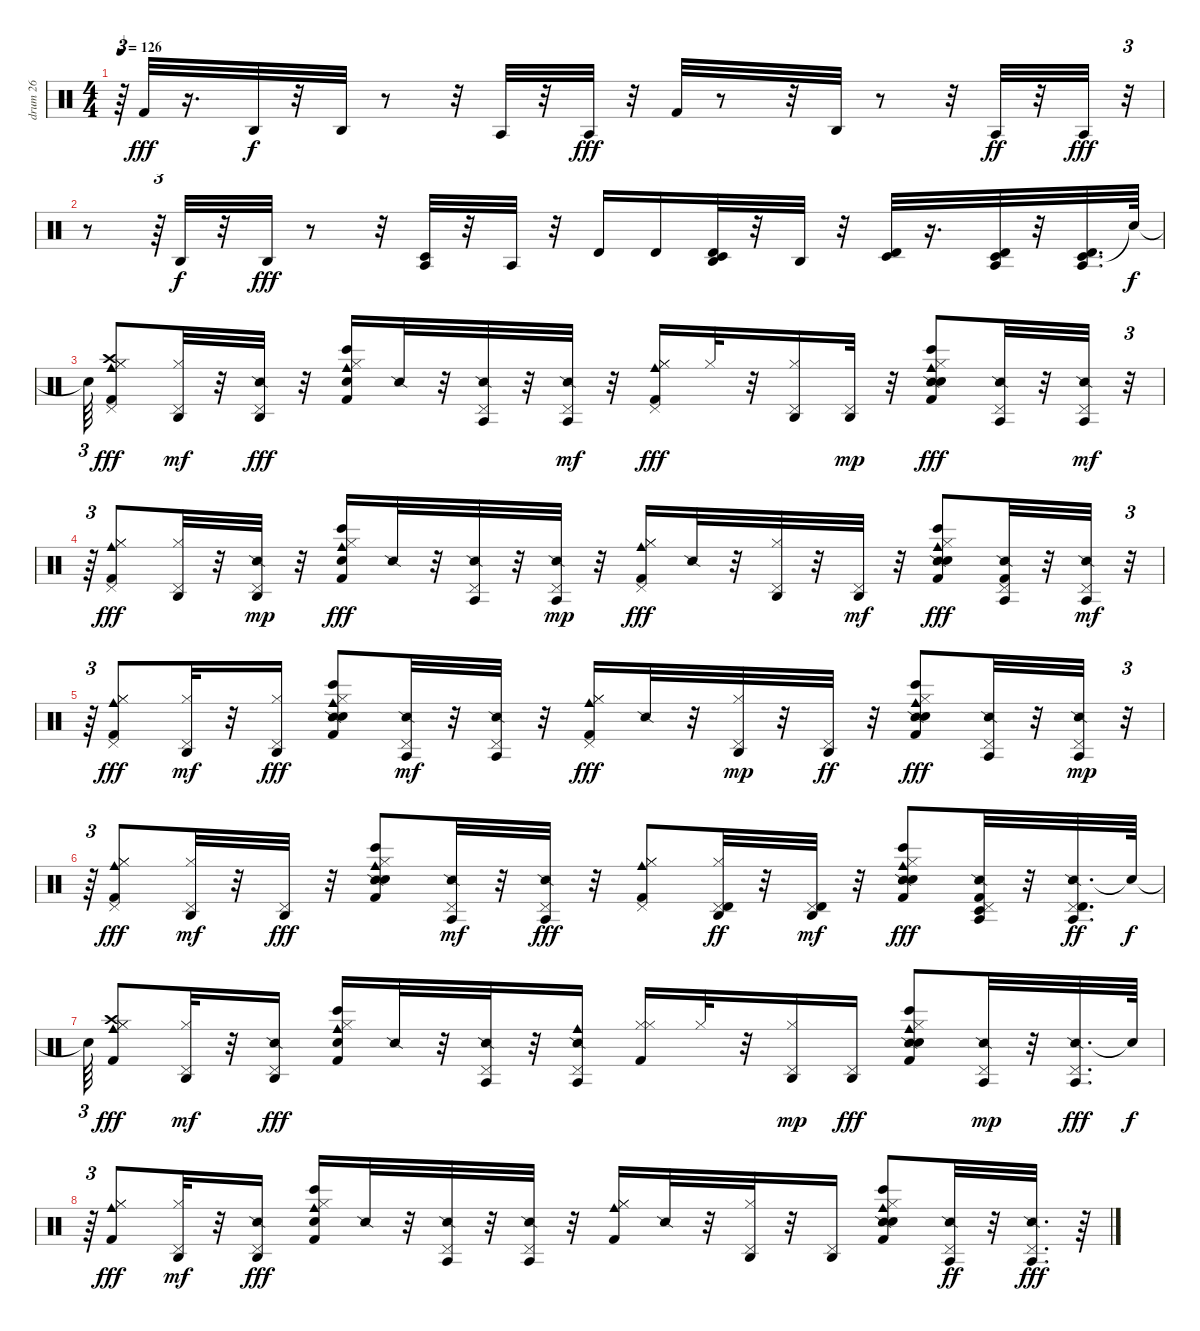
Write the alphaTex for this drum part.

\track ("drum 26" "drum 26") {instrument percussion}
\staff {score}
\articulation defaults
\ts (4 4)
\tempo 126
\clef neutral
\ks c
r.64{tu (3 2) dy fff} "Kick (hit) 2".32 r.16{d} "Agogo high (hit)".32{dy f} r.32 "Agogo high (hit)".32 r.8 r.32 "Agogo tow (hit)".32 r.32 "Agogo tow (hit)".32{dy fff} r.32 "Kick (hit) 2".32 r.8 r.32 "Agogo high (hit)".32 r.8 r.32 "Agogo tow (hit)".32{dy ff} r.32 "Agogo tow (hit)".32{dy fff} r.32{tu (3 2)} |
r.8 r.64{tu (3 2)} "Agogo high (hit)".32{dy f} r.32 "Agogo high (hit)".32{dy fff} r.8 r.32 ("Timbale low (hit)" "Agogo tow (hit)").32 r.32 "Agogo tow (hit)".32 r.32 "Timbale high (hit)".16 "Timbale high (hit)".16 ("Timbale high (hit)" "Timbale low (hit)" "Agogo high (hit)").32 r.32 "Agogo high (hit)".32 r.32 ("Timbale high (hit)" "Timbale low (hit)").32 r.16{d} ("Timbale high (hit)" "Timbale low (hit)" "Agogo tow (hit)").32 r.32 ("Timbale low (hit)" "Timbale high (hit)" "Agogo tow (hit)").32{d} "Snare (hit)"{t}.64{dy f} |
"Snare (hit)"{t}.64{tu (3 2)} ("Hi-Hat (closed)" "Kick (hit) 2" "Hi-Hat (closed)" "Pedal Hi-Hat (hit)" "Crash high (hit)" "Cowbell medium (hit)").8{dy fff} ("Hi-Hat (closed)" "Pedal Hi-Hat (hit)" "Agogo high (hit)").32{dy mf} r.32 ("Snare (side stick) 2" "Pedal Hi-Hat (hit)" "Agogo high (hit)").32{dy fff} r.32 ("Bongo High (hit)" "Kick (hit) 2" "Hand Clap (hit)" "Hi-Hat (closed)" "Cowbell medium (hit)").16 "Snare (side stick) 2".32 r.32 ("Snare (side stick) 2" "Pedal Hi-Hat (hit)" "Agogo tow (hit)").32 r.32 ("Snare (side stick) 2" "Pedal Hi-Hat (hit)" "Agogo tow (hit)").32{dy mf} r.32 ("Hi-Hat (closed)" "Kick (hit) 2" "Hi-Hat (closed)" "Pedal Hi-Hat (hit)" "Cowbell medium (hit)").16{dy fff} "Hi-Hat (closed)".32 r.32 ("Hi-Hat (closed)" "Pedal Hi-Hat (hit)" "Agogo high (hit)").16 ("Pedal Hi-Hat (hit)" "Agogo high (hit)").32{dy mp} r.32 ("Bongo High (hit)" "Snare (side stick) 2" "Kick (hit) 2" "Hand Clap (hit)" "Hi-Hat (closed)" "Cowbell medium (hit)").8{dy fff} ("Snare (side stick) 2" "Pedal Hi-Hat (hit)" "Agogo tow (hit)").32 r.32 ("Snare (side stick) 2" "Pedal Hi-Hat (hit)" "Agogo tow (hit)").32{dy mf} r.32{tu (3 2)} |
r.64{tu (3 2)} ("Hi-Hat (closed)" "Kick (hit) 2" "Hi-Hat (closed)" "Pedal Hi-Hat (hit)" "Cowbell medium (hit)").8{dy fff} ("Hi-Hat (closed)" "Pedal Hi-Hat (hit)" "Agogo high (hit)").32 r.32 ("Snare (side stick) 2" "Pedal Hi-Hat (hit)" "Agogo high (hit)").32{dy mp} r.32 ("Bongo High (hit)" "Kick (hit) 2" "Hand Clap (hit)" "Hi-Hat (closed)" "Cowbell medium (hit)").16{dy fff} "Snare (side stick) 2".32 r.32 ("Snare (side stick) 2" "Pedal Hi-Hat (hit)" "Agogo tow (hit)").32 r.32 ("Snare (side stick) 2" "Pedal Hi-Hat (hit)" "Agogo tow (hit)").32{dy mp} r.32 ("Hi-Hat (closed)" "Kick (hit) 2" "Hi-Hat (closed)" "Pedal Hi-Hat (hit)" "Cowbell medium (hit)").16{dy fff} "Snare (side stick) 2".32 r.32 ("Hi-Hat (closed)" "Pedal Hi-Hat (hit)" "Agogo high (hit)").32 r.32 ("Pedal Hi-Hat (hit)" "Agogo high (hit)").32{dy mf} r.32 ("Bongo High (hit)" "Snare (side stick) 2" "Kick (hit) 2" "Hand Clap (hit)" "Hi-Hat (closed)" "Cowbell medium (hit)").8{dy fff} ("Snare (side stick) 2" "Kick (hit) 2" "Pedal Hi-Hat (hit)" "Agogo tow (hit)").32 r.32 ("Snare (side stick) 2" "Pedal Hi-Hat (hit)" "Agogo tow (hit)").32{dy mf} r.32{tu (3 2)} |
r.64{tu (3 2)} ("Hi-Hat (closed)" "Kick (hit) 2" "Hi-Hat (closed)" "Pedal Hi-Hat (hit)" "Cowbell medium (hit)").8{dy fff} ("Hi-Hat (closed)" "Pedal Hi-Hat (hit)" "Agogo high (hit)").32{dy mf} r.32 ("Hi-Hat (closed)" "Pedal Hi-Hat (hit)" "Agogo high (hit)").16{dy fff} ("Bongo High (hit)" "Snare (side stick) 2" "Kick (hit) 2" "Hand Clap (hit)" "Hi-Hat (closed)" "Cowbell medium (hit)").8 ("Snare (side stick) 2" "Pedal Hi-Hat (hit)" "Agogo tow (hit)").32{dy mf} r.32 ("Snare (side stick) 2" "Pedal Hi-Hat (hit)" "Agogo tow (hit)").32 r.32 ("Hi-Hat (closed)" "Kick (hit) 2" "Hi-Hat (closed)" "Pedal Hi-Hat (hit)" "Cowbell medium (hit)").16{dy fff} "Snare (side stick) 2".32 r.32 ("Hi-Hat (closed)" "Pedal Hi-Hat (hit)" "Agogo high (hit)").32{dy mp} r.32 ("Pedal Hi-Hat (hit)" "Agogo high (hit)").32{dy ff} r.32 ("Bongo High (hit)" "Snare (side stick) 2" "Kick (hit) 2" "Hand Clap (hit)" "Hi-Hat (closed)" "Cowbell medium (hit)").8{dy fff} ("Snare (side stick) 2" "Pedal Hi-Hat (hit)" "Agogo tow (hit)").32 r.32 ("Snare (side stick) 2" "Pedal Hi-Hat (hit)" "Agogo tow (hit)").32{dy mp} r.32{tu (3 2)} |
r.64{tu (3 2)} ("Hi-Hat (closed)" "Kick (hit) 2" "Hi-Hat (closed)" "Pedal Hi-Hat (hit)" "Cowbell medium (hit)").8{dy fff} ("Hi-Hat (closed)" "Pedal Hi-Hat (hit)" "Agogo high (hit)").32{dy mf} r.32 ("Pedal Hi-Hat (hit)" "Agogo high (hit)").32{dy fff} r.32 ("Bongo High (hit)" "Snare (side stick) 2" "Kick (hit) 2" "Hand Clap (hit)" "Hi-Hat (closed)" "Cowbell medium (hit)").8 ("Snare (side stick) 2" "Pedal Hi-Hat (hit)" "Agogo tow (hit)").32{dy mf} r.32 ("Snare (side stick) 2" "Pedal Hi-Hat (hit)" "Agogo tow (hit)").32{dy fff} r.32 ("Hi-Hat (closed)" "Kick (hit) 2" "Hi-Hat (closed)" "Pedal Hi-Hat (hit)" "Cowbell medium (hit)").8 ("Hi-Hat (closed)" "Pedal Hi-Hat (hit)" "Timbale high (hit)" "Agogo high (hit)").32{dy ff} r.32 ("Pedal Hi-Hat (hit)" "Timbale high (hit)" "Agogo high (hit)").32{dy mf} r.32 ("Bongo High (hit)" "Snare (side stick) 2" "Kick (hit) 2" "Hand Clap (hit)" "Hi-Hat (closed)" "Cowbell medium (hit)").8{dy fff} ("Snare (side stick) 2" "Kick (hit) 2" "Pedal Hi-Hat (hit)" "Timbale low (hit)" "Agogo tow (hit)").32 r.32 ("Snare (side stick) 2" "Pedal Hi-Hat (hit)" "Timbale high (hit)" "Agogo tow (hit)").32{d dy ff} "Snare (hit)"{t}.64{dy f} |
"Snare (hit)"{t}.64{tu (3 2)} ("Hi-Hat (closed)" "Kick (hit) 2" "Hi-Hat (closed)" "Crash high (hit)" "Cowbell medium (hit)").8{dy fff} ("Hi-Hat (closed)" "Pedal Hi-Hat (hit)" "Agogo high (hit)").32{dy mf} r.32 ("Snare (side stick) 2" "Agogo high (hit)" "Pedal Hi-Hat (hit)").16{dy fff} ("Bongo High (hit)" "Kick (hit) 2" "Hand Clap (hit)" "Hi-Hat (closed)" "Cowbell medium (hit)").16 "Snare (side stick) 2".32 r.32 ("Snare (side stick) 2" "Pedal Hi-Hat (hit)" "Agogo tow (hit)").32 r.32 ("Snare (side stick) 2" "Cowbell medium (hit)" "Agogo tow (hit)" "Pedal Hi-Hat (hit)").16 ("Hi-Hat (closed)" "Kick (hit) 2" "Hi-Hat (closed)").16 "Hi-Hat (closed)".32 r.32 ("Hi-Hat (closed)" "Pedal Hi-Hat (hit)" "Agogo high (hit)").16{dy mp} ("Agogo high (hit)" "Pedal Hi-Hat (hit)").16{dy fff} ("Bongo High (hit)" "Snare (side stick) 2" "Kick (hit) 2" "Hand Clap (hit)" "Hi-Hat (closed)" "Cowbell medium (hit)").8 ("Snare (side stick) 2" "Pedal Hi-Hat (hit)" "Agogo tow (hit)").32{dy mp} r.32 ("Snare (side stick) 2" "Agogo tow (hit)" "Pedal Hi-Hat (hit)").32{d dy fff} "Snare (hit)"{t}.64{dy f} |
r.64{tu (3 2)} ("Hi-Hat (closed)" "Kick (hit) 2" "Hi-Hat (closed)" "Cowbell medium (hit)").8{dy fff} ("Hi-Hat (closed)" "Pedal Hi-Hat (hit)" "Agogo high (hit)").32{dy mf} r.32 ("Snare (side stick) 2" "Agogo high (hit)" "Pedal Hi-Hat (hit)").16{dy fff} ("Bongo High (hit)" "Kick (hit) 2" "Hand Clap (hit)" "Hi-Hat (closed)" "Cowbell medium (hit)").16 "Snare (side stick) 2".32 r.32 ("Snare (side stick) 2" "Pedal Hi-Hat (hit)" "Agogo tow (hit)").32 r.32 ("Snare (side stick) 2" "Agogo tow (hit)" "Pedal Hi-Hat (hit)").32 r.32 ("Hi-Hat (closed)" "Kick (hit) 2" "Hi-Hat (closed)" "Cowbell medium (hit)").16 "Snare (side stick) 2".32 r.32 ("Hi-Hat (closed)" "Pedal Hi-Hat (hit)" "Agogo high (hit)").32 r.32 ("Agogo high (hit)" "Pedal Hi-Hat (hit)").16 ("Bongo High (hit)" "Snare (side stick) 2" "Kick (hit) 2" "Hand Clap (hit)" "Hi-Hat (closed)" "Cowbell medium (hit)").8 ("Snare (side stick) 2" "Pedal Hi-Hat (hit)" "Agogo tow (hit)").32{dy ff} r.32 ("Snare (side stick) 2" "Agogo tow (hit)" "Pedal Hi-Hat (hit)").32{d dy fff} r.64
